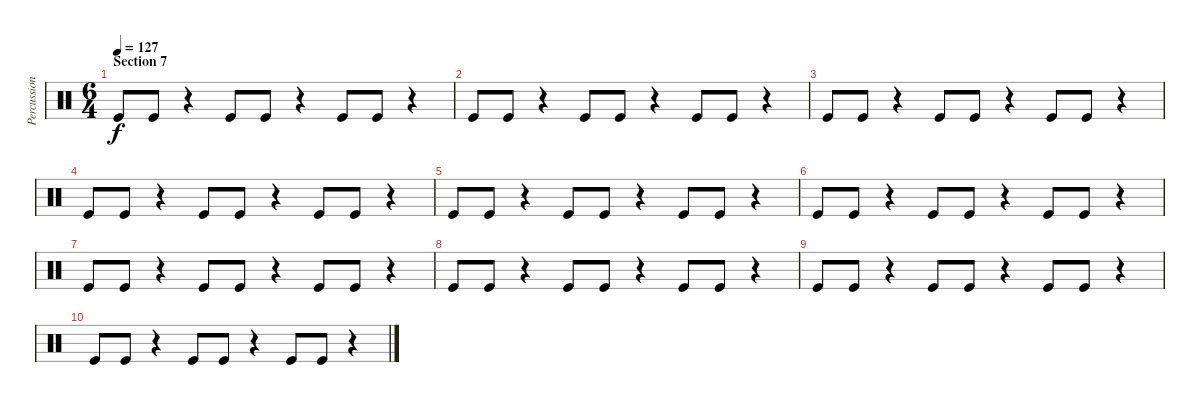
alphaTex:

\track ("Percussion" "Percussion") {instrument percussion}
\staff {score}
\articulation defaults
\ts (6 4)
\section ("" "Section 7")
\tempo 127
\clef neutral
\ks c "Kick (hit)".8{dy f} "Kick (hit)".8
r.4 "Kick (hit)".8 "Kick (hit)".8 r.4 "Kick (hit)".8 "Kick (hit)".8 r.4 |
"Kick (hit)".8 "Kick (hit)".8 r.4 "Kick (hit)".8 "Kick (hit)".8 r.4 "Kick (hit)".8 "Kick (hit)".8 r.4 |
"Kick (hit)".8 "Kick (hit)".8 r.4 "Kick (hit)".8 "Kick (hit)".8 r.4 "Kick (hit)".8 "Kick (hit)".8 r.4 |
"Kick (hit)".8 "Kick (hit)".8 r.4 "Kick (hit)".8 "Kick (hit)".8 r.4 "Kick (hit)".8 "Kick (hit)".8 r.4 |
"Kick (hit)".8 "Kick (hit)".8 r.4 "Kick (hit)".8 "Kick (hit)".8 r.4 "Kick (hit)".8 "Kick (hit)".8 r.4 |
"Kick (hit)".8 "Kick (hit)".8 r.4 "Kick (hit)".8 "Kick (hit)".8 r.4 "Kick (hit)".8 "Kick (hit)".8 r.4 |
"Kick (hit)".8 "Kick (hit)".8 r.4 "Kick (hit)".8 "Kick (hit)".8 r.4 "Kick (hit)".8 "Kick (hit)".8 r.4 |
"Kick (hit)".8 "Kick (hit)".8 r.4 "Kick (hit)".8 "Kick (hit)".8 r.4 "Kick (hit)".8 "Kick (hit)".8 r.4 |
"Kick (hit)".8 "Kick (hit)".8 r.4 "Kick (hit)".8 "Kick (hit)".8 r.4 "Kick (hit)".8 "Kick (hit)".8 r.4 |
"Kick (hit)".8 "Kick (hit)".8 r.4 "Kick (hit)".8 "Kick (hit)".8 r.4 "Kick (hit)".8 "Kick (hit)".8 r.4
